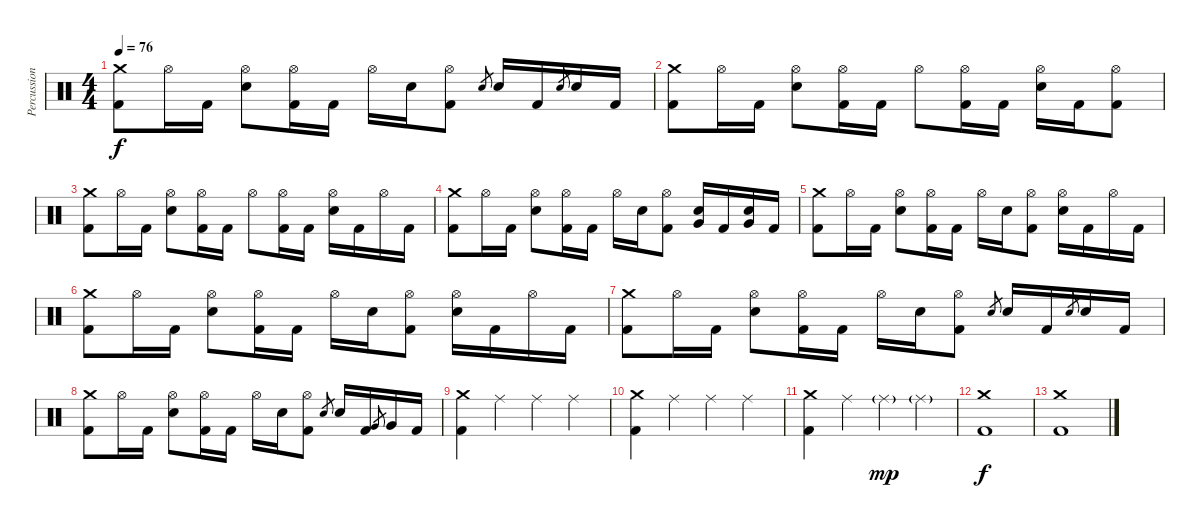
\track ("Percussion" "Percussion") {instrument percussion}
\staff {score}
\articulation defaults
\ts (4 4)
\tempo 76
\clef neutral
\ks c
("Crash medium (hit)" "Kick (hit) 2").8{dy f} "Hi-Hat (open)".16 "Kick (hit) 2".16 ("Hi-Hat (open)" "Electric Snare (hit)").8 ("Hi-Hat (open)" "Kick (hit) 2").16 "Kick (hit) 2".16 "Hi-Hat (open)".16 "Electric Snare (hit)".16 ("Hi-Hat (open)" "Kick (hit) 2").8 "Electric Snare (hit)".8{gr} "Electric Snare (hit)".16 "Kick (hit) 2".16 "Electric Snare (hit)".8{gr} "Electric Snare (hit)".16 "Kick (hit) 2".16 |
("Crash medium (hit)" "Kick (hit) 2").8 "Hi-Hat (open)".16 "Kick (hit) 2".16 ("Hi-Hat (open)" "Electric Snare (hit)").8 ("Hi-Hat (open)" "Kick (hit) 2").16 "Kick (hit) 2".16 "Hi-Hat (open)".8 ("Hi-Hat (open)" "Kick (hit) 2").16 "Kick (hit) 2".16 ("Hi-Hat (open)" "Electric Snare (hit)").16 "Kick (hit) 2".16 ("Hi-Hat (open)" "Kick (hit) 2").8 |
("Crash medium (hit)" "Kick (hit) 2").8 "Hi-Hat (open)".16 "Kick (hit) 2".16 ("Hi-Hat (open)" "Electric Snare (hit)").8 ("Hi-Hat (open)" "Kick (hit) 2").16 "Kick (hit) 2".16 "Hi-Hat (open)".8 ("Hi-Hat (open)" "Kick (hit) 2").16 "Kick (hit) 2".16 ("Hi-Hat (open)" "Electric Snare (hit)").16 "Kick (hit) 2".16 "Hi-Hat (open)".16 "Kick (hit) 2".16 |
("Crash medium (hit)" "Kick (hit) 2").8 "Hi-Hat (open)".16 "Kick (hit) 2".16 ("Hi-Hat (open)" "Electric Snare (hit)").8 ("Hi-Hat (open)" "Kick (hit) 2").16 "Kick (hit) 2".16 "Hi-Hat (open)".16 "Electric Snare (hit)".16 ("Hi-Hat (open)" "Kick (hit) 2").8 ("Very Low Tom (hit)" "Electric Snare (hit)").16 "Kick (hit) 2".16 ("Very Low Tom (hit)" "Electric Snare (hit)").16 "Kick (hit) 2".16 |
("Crash medium (hit)" "Kick (hit) 2").8 "Hi-Hat (open)".16 "Kick (hit) 2".16 ("Hi-Hat (open)" "Electric Snare (hit)").8 ("Hi-Hat (open)" "Kick (hit) 2").16 "Kick (hit) 2".16 "Hi-Hat (open)".16 "Electric Snare (hit)".16 ("Hi-Hat (open)" "Kick (hit) 2").8 ("Hi-Hat (open)" "Electric Snare (hit)").16 "Kick (hit) 2".16 "Hi-Hat (open)".16 "Kick (hit) 2".16 |
("Crash medium (hit)" "Kick (hit) 2").8 "Hi-Hat (open)".16 "Kick (hit) 2".16 ("Hi-Hat (open)" "Electric Snare (hit)").8 ("Hi-Hat (open)" "Kick (hit) 2").16 "Kick (hit) 2".16 "Hi-Hat (open)".16 "Electric Snare (hit)".16 ("Hi-Hat (open)" "Kick (hit) 2").8 ("Hi-Hat (open)" "Electric Snare (hit)").16 "Kick (hit) 2".16 "Hi-Hat (open)".16 "Kick (hit) 2".16 |
("Crash medium (hit)" "Kick (hit) 2").8 "Hi-Hat (open)".16 "Kick (hit) 2".16 ("Hi-Hat (open)" "Electric Snare (hit)").8 ("Hi-Hat (open)" "Kick (hit) 2").16 "Kick (hit) 2".16 "Hi-Hat (open)".16 "Electric Snare (hit)".16 ("Hi-Hat (open)" "Kick (hit) 2").8 "Electric Snare (hit)".8{gr} "Electric Snare (hit)".16 "Kick (hit) 2".16 "Electric Snare (hit)".8{gr} "Electric Snare (hit)".16 "Kick (hit) 2".16 |
("Crash medium (hit)" "Kick (hit) 2").8 "Hi-Hat (open)".16 "Kick (hit) 2".16 ("Hi-Hat (open)" "Electric Snare (hit)").8 ("Hi-Hat (open)" "Kick (hit) 2").16 "Kick (hit) 2".16 "Hi-Hat (open)".16 "Electric Snare (hit)".16 ("Hi-Hat (open)" "Kick (hit) 2").8 "Electric Snare (hit)".8{gr} "Electric Snare (hit)".16 "Kick (hit) 2".16 "Very Low Tom (hit)".8{gr} "Very Low Tom (hit)".16 "Kick (hit) 2".16 |
("Crash medium (hit)" "Kick (hit) 2").4 "Ride (middle)".4 "Ride (middle)".4 "Ride (middle)".4 |
("Crash medium (hit)" "Kick (hit) 2").4 "Ride (middle)".4 "Ride (middle)".4 "Ride (middle)".4 |
("Crash medium (hit)" "Kick (hit) 2").4 "Ride (middle)".4 "Ride (middle)"{g}.4{dy mp} "Ride (middle)"{g}.4 |
("Crash medium (hit)" "Kick (hit) 2").1{dy f} |
("Crash medium (hit)" "Kick (hit) 2").1
